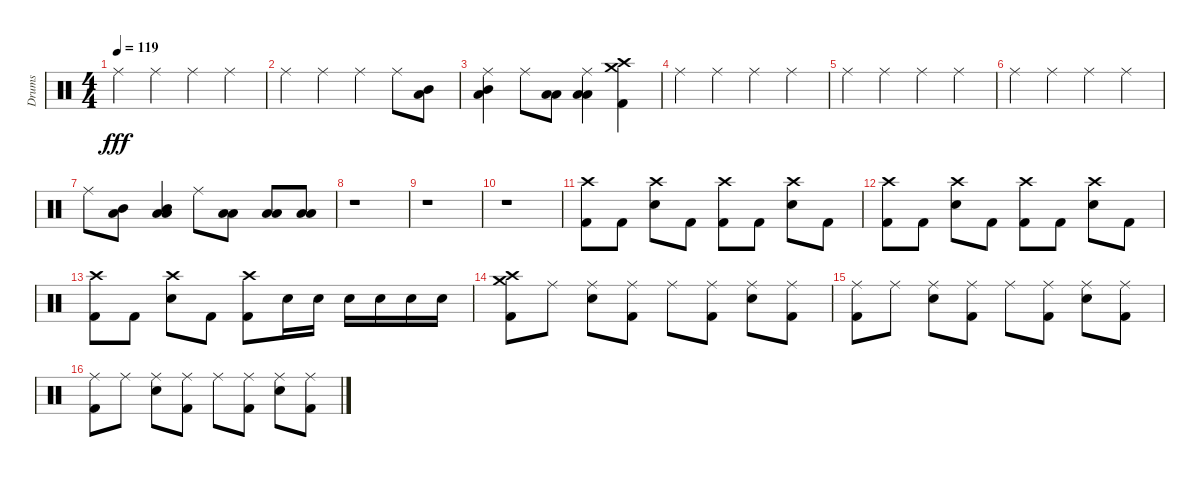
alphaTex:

\track ("Drums" "Drums") {instrument percussion}
\staff {score}
\articulation defaults
\ts (4 4)
\tempo 119
\clef neutral
\ks c "Ride (middle)".4{dy fff} "Ride (middle)".4 "Ride (middle)".4 "Ride (middle)".4
|
"Ride (middle)".4 "Ride (middle)".4 "Ride (middle)".4 "Ride (middle)".8 ("Low Tom (hit)" "Mid Tom (hit)").8 |
("Ride (middle)" "Mid Tom (hit)" "Low Tom (hit)").4 "Ride (middle)".8 ("Low Tom (hit)" "Low Floor Tom (hit)").8 ("Ride (middle)" "Low Tom (hit)" "Low Floor Tom (hit)").4 ("Crash medium (hit)" "Crash high (hit)" "Kick (hit) 2").4 |
"Ride (middle)".4 "Ride (middle)".4 "Ride (middle)".4 "Ride (middle)".4 |
"Ride (middle)".4 "Ride (middle)".4 "Ride (middle)".4 "Ride (middle)".4 |
"Ride (middle)".4 "Ride (middle)".4 "Ride (middle)".4 "Ride (middle)".4 |
"Ride (middle)".8 ("Low Tom (hit)" "Mid Tom (hit)").8 ("Low Floor Tom (hit)" "Mid Tom (hit)" "Low Tom (hit)").4 "Ride (middle)".8 ("Low Tom (hit)" "Low Floor Tom (hit)").8 ("Low Tom (hit)" "Low Floor Tom (hit)").8 ("Low Tom (hit)" "Low Floor Tom (hit)").8 |
r.1 |
r.1 |
r.1 |
("Crash high (hit)" "Kick (hit) 2").8 "Kick (hit) 2".8 ("Crash high (hit)" "Snare (hit) 2").8 "Kick (hit) 2".8 ("Crash high (hit)" "Kick (hit) 2").8 "Kick (hit) 2".8 ("Crash high (hit)" "Snare (hit) 2").8 "Kick (hit) 2".8 |
("Crash high (hit)" "Kick (hit) 2").8 "Kick (hit) 2".8 ("Crash high (hit)" "Snare (hit) 2").8 "Kick (hit) 2".8 ("Crash high (hit)" "Kick (hit) 2").8 "Kick (hit) 2".8 ("Crash high (hit)" "Snare (hit) 2").8 "Kick (hit) 2".8 |
("Crash high (hit)" "Kick (hit) 2").8 "Kick (hit) 2".8 ("Crash high (hit)" "Snare (hit) 2").8 "Kick (hit) 2".8 ("Crash high (hit)" "Kick (hit) 2").8 "Snare (hit) 2".16 "Snare (hit) 2".16 "Snare (hit) 2".16 "Snare (hit) 2".16 "Snare (hit) 2".16 "Snare (hit) 2".16 |
("Crash high (hit)" "Crash medium (hit)" "Kick (hit) 2").8 "Ride (middle)".8 ("Ride (middle)" "Snare (hit) 2").8 ("Ride (middle)" "Kick (hit) 2").8 "Ride (middle)".8 ("Ride (middle)" "Kick (hit) 2").8 ("Ride (middle)" "Snare (hit) 2").8 ("Ride (middle)" "Kick (hit) 2").8 |
("Ride (middle)" "Kick (hit) 2").8 "Ride (middle)".8 ("Ride (middle)" "Snare (hit) 2").8 ("Ride (middle)" "Kick (hit) 2").8 "Ride (middle)".8 ("Ride (middle)" "Kick (hit) 2").8 ("Ride (middle)" "Snare (hit) 2").8 ("Ride (middle)" "Kick (hit) 2").8 |
("Ride (middle)" "Kick (hit) 2").8 "Ride (middle)".8 ("Ride (middle)" "Snare (hit) 2").8 ("Ride (middle)" "Kick (hit) 2").8 "Ride (middle)".8 ("Ride (middle)" "Kick (hit) 2").8 ("Ride (middle)" "Snare (hit) 2").8 ("Ride (middle)" "Kick (hit) 2").8
